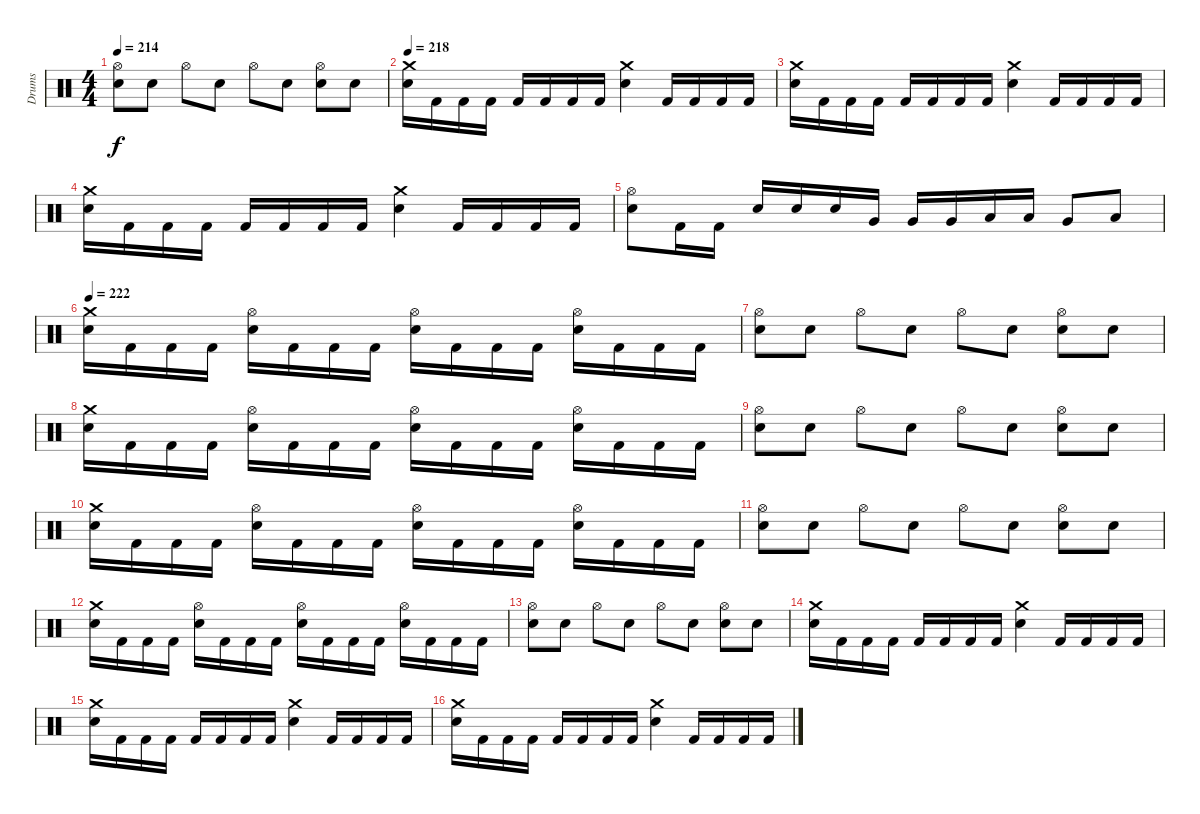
\track ("Drums" "Drums") {instrument percussion}
\staff {score}
\articulation defaults
\ts (4 4)
\tempo 214
\clef neutral
\ks c
("Hi-Hat (open)" "Snare (hit) 2").8{dy f} "Snare (hit) 2".8 "Hi-Hat (open)".8 "Snare (hit) 2".8 "Hi-Hat (open)".8 "Snare (hit) 2".8 ("Hi-Hat (open)" "Snare (hit) 2").8 "Snare (hit) 2".8 |
\tempo 218
("Crash medium (hit)" "Snare (hit) 2").16 "Kick (hit) 2".16 "Kick (hit) 2".16 "Kick (hit) 2".16 "Kick (hit) 2".16 "Kick (hit) 2".16 "Kick (hit) 2".16 "Kick (hit) 2".16 ("Crash medium (hit)" "Snare (hit) 2").4 "Kick (hit) 2".16 "Kick (hit) 2".16 "Kick (hit) 2".16 "Kick (hit) 2".16 |
("Crash medium (hit)" "Snare (hit) 2").16 "Kick (hit) 2".16 "Kick (hit) 2".16 "Kick (hit) 2".16 "Kick (hit) 2".16 "Kick (hit) 2".16 "Kick (hit) 2".16 "Kick (hit) 2".16 ("Crash medium (hit)" "Snare (hit) 2").4 "Kick (hit) 2".16 "Kick (hit) 2".16 "Kick (hit) 2".16 "Kick (hit) 2".16 |
("Crash medium (hit)" "Snare (hit) 2").16 "Kick (hit) 2".16 "Kick (hit) 2".16 "Kick (hit) 2".16 "Kick (hit) 2".16 "Kick (hit) 2".16 "Kick (hit) 2".16 "Kick (hit) 2".16 ("Crash medium (hit)" "Snare (hit) 2").4 "Kick (hit) 2".16 "Kick (hit) 2".16 "Kick (hit) 2".16 "Kick (hit) 2".16 |
("Hi-Hat (open)" "Snare (hit) 2").8 "Kick (hit) 2".16 "Kick (hit) 2".16 "Snare (hit) 2".16 "Snare (hit) 2".16 "Snare (hit) 2".16 "Very Low Tom (hit)".16 "Very Low Tom (hit)".16 "Very Low Tom (hit)".16 "Low Floor Tom (hit)".16 "Low Floor Tom (hit)".16 "Very Low Tom (hit)".8 "Low Floor Tom (hit)".8 |
\tempo 222
("Crash medium (hit)" "Snare (hit) 2").16 "Kick (hit) 2".16 "Kick (hit) 2".16 "Kick (hit) 2".16 ("Hi-Hat (open)" "Snare (hit) 2").16 "Kick (hit) 2".16 "Kick (hit) 2".16 "Kick (hit) 2".16 ("Hi-Hat (open)" "Snare (hit) 2").16 "Kick (hit) 2".16 "Kick (hit) 2".16 "Kick (hit) 2".16 ("Hi-Hat (open)" "Snare (hit) 2").16 "Kick (hit) 2".16 "Kick (hit) 2".16 "Kick (hit) 2".16 |
("Hi-Hat (open)" "Snare (hit) 2").8 "Snare (hit) 2".8 "Hi-Hat (open)".8 "Snare (hit) 2".8 "Hi-Hat (open)".8 "Snare (hit) 2".8 ("Hi-Hat (open)" "Snare (hit) 2").8 "Snare (hit) 2".8 |
("Crash medium (hit)" "Snare (hit) 2").16 "Kick (hit) 2".16 "Kick (hit) 2".16 "Kick (hit) 2".16 ("Hi-Hat (open)" "Snare (hit) 2").16 "Kick (hit) 2".16 "Kick (hit) 2".16 "Kick (hit) 2".16 ("Hi-Hat (open)" "Snare (hit) 2").16 "Kick (hit) 2".16 "Kick (hit) 2".16 "Kick (hit) 2".16 ("Hi-Hat (open)" "Snare (hit) 2").16 "Kick (hit) 2".16 "Kick (hit) 2".16 "Kick (hit) 2".16 |
("Hi-Hat (open)" "Snare (hit) 2").8 "Snare (hit) 2".8 "Hi-Hat (open)".8 "Snare (hit) 2".8 "Hi-Hat (open)".8 "Snare (hit) 2".8 ("Hi-Hat (open)" "Snare (hit) 2").8 "Snare (hit) 2".8 |
("Crash medium (hit)" "Snare (hit) 2").16 "Kick (hit) 2".16 "Kick (hit) 2".16 "Kick (hit) 2".16 ("Hi-Hat (open)" "Snare (hit) 2").16 "Kick (hit) 2".16 "Kick (hit) 2".16 "Kick (hit) 2".16 ("Hi-Hat (open)" "Snare (hit) 2").16 "Kick (hit) 2".16 "Kick (hit) 2".16 "Kick (hit) 2".16 ("Hi-Hat (open)" "Snare (hit) 2").16 "Kick (hit) 2".16 "Kick (hit) 2".16 "Kick (hit) 2".16 |
("Hi-Hat (open)" "Snare (hit) 2").8 "Snare (hit) 2".8 "Hi-Hat (open)".8 "Snare (hit) 2".8 "Hi-Hat (open)".8 "Snare (hit) 2".8 ("Hi-Hat (open)" "Snare (hit) 2").8 "Snare (hit) 2".8 |
("Crash medium (hit)" "Snare (hit) 2").16 "Kick (hit) 2".16 "Kick (hit) 2".16 "Kick (hit) 2".16 ("Hi-Hat (open)" "Snare (hit) 2").16 "Kick (hit) 2".16 "Kick (hit) 2".16 "Kick (hit) 2".16 ("Hi-Hat (open)" "Snare (hit) 2").16 "Kick (hit) 2".16 "Kick (hit) 2".16 "Kick (hit) 2".16 ("Hi-Hat (open)" "Snare (hit) 2").16 "Kick (hit) 2".16 "Kick (hit) 2".16 "Kick (hit) 2".16 |
("Hi-Hat (open)" "Snare (hit) 2").8 "Snare (hit) 2".8 "Hi-Hat (open)".8 "Snare (hit) 2".8 "Hi-Hat (open)".8 "Snare (hit) 2".8 ("Hi-Hat (open)" "Snare (hit) 2").8 "Snare (hit) 2".8 |
("Crash medium (hit)" "Snare (hit) 2").16 "Kick (hit) 2".16 "Kick (hit) 2".16 "Kick (hit) 2".16 "Kick (hit) 2".16 "Kick (hit) 2".16 "Kick (hit) 2".16 "Kick (hit) 2".16 ("Crash medium (hit)" "Snare (hit) 2").4 "Kick (hit) 2".16 "Kick (hit) 2".16 "Kick (hit) 2".16 "Kick (hit) 2".16 |
("Crash medium (hit)" "Snare (hit) 2").16 "Kick (hit) 2".16 "Kick (hit) 2".16 "Kick (hit) 2".16 "Kick (hit) 2".16 "Kick (hit) 2".16 "Kick (hit) 2".16 "Kick (hit) 2".16 ("Crash medium (hit)" "Snare (hit) 2").4 "Kick (hit) 2".16 "Kick (hit) 2".16 "Kick (hit) 2".16 "Kick (hit) 2".16 |
("Crash medium (hit)" "Snare (hit) 2").16 "Kick (hit) 2".16 "Kick (hit) 2".16 "Kick (hit) 2".16 "Kick (hit) 2".16 "Kick (hit) 2".16 "Kick (hit) 2".16 "Kick (hit) 2".16 ("Crash medium (hit)" "Snare (hit) 2").4 "Kick (hit) 2".16 "Kick (hit) 2".16 "Kick (hit) 2".16 "Kick (hit) 2".16
